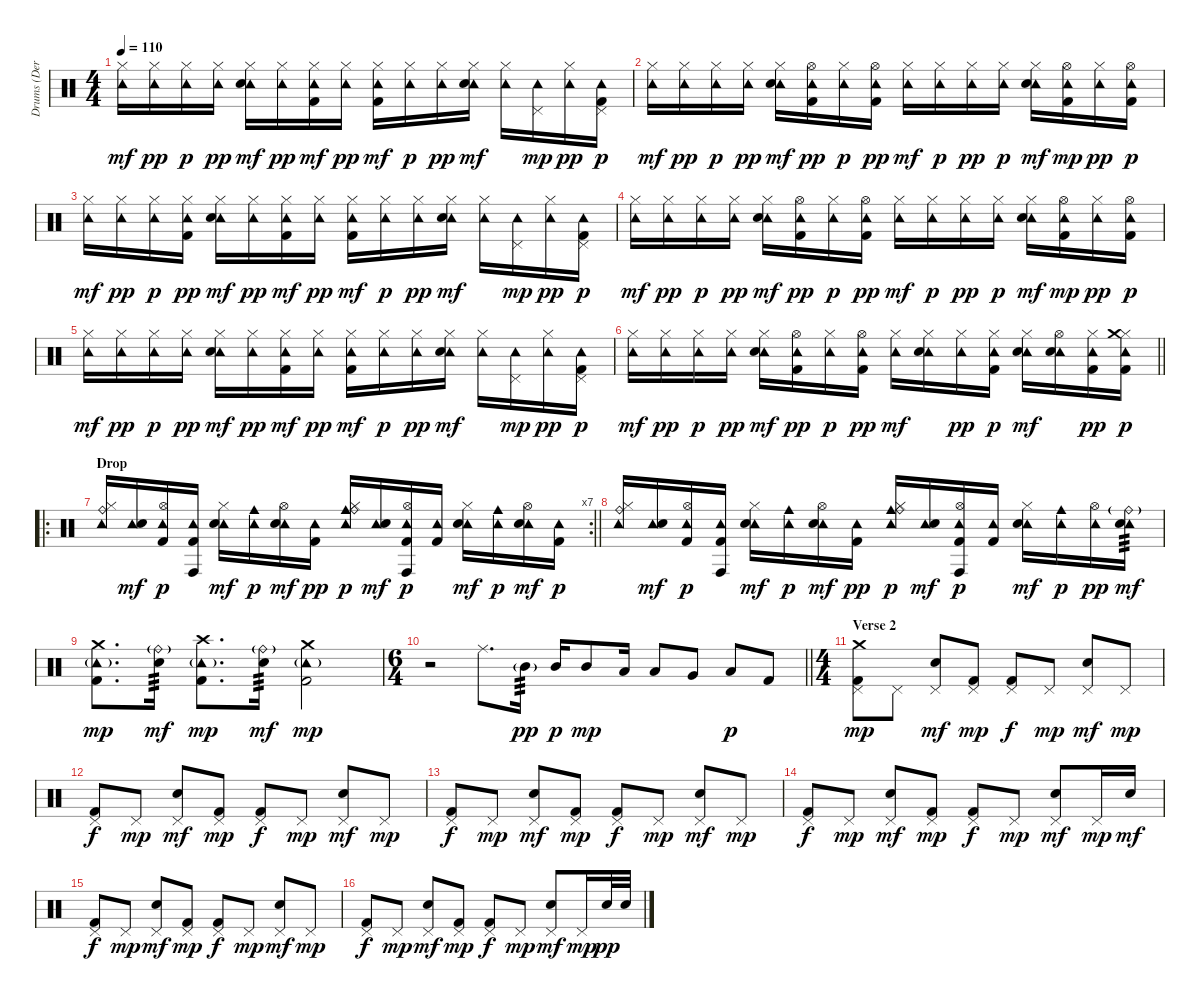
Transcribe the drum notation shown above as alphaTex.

\track ("Drums (Derrick McKenzie)" "Drums (Der") {instrument percussion}
\staff {score}
\articulation defaults
\ts (4 4)
\tempo 110
\clef neutral
\ks c
("Hi-Hat (closed)" "Tambourine (hit)").16{dy mf} ("Hi-Hat (closed)" "Tambourine (hit)").16{dy pp} ("Hi-Hat (closed)" "Tambourine (hit)").16{dy p} ("Hi-Hat (closed)" "Tambourine (hit)").16{dy pp} ("Hi-Hat (closed)" "Tambourine (hit)" "Electric Snare (hit)").16{dy mf} ("Hi-Hat (closed)" "Tambourine (hit)").16{dy pp} ("Hi-Hat (closed)" "Tambourine (hit)" "Kick (hit) 2").16{dy mf} ("Hi-Hat (closed)" "Tambourine (hit)").16{dy pp} ("Hi-Hat (closed)" "Tambourine (hit)" "Kick (hit) 2").16{dy mf} ("Hi-Hat (closed)" "Tambourine (hit)").16{dy p} ("Hi-Hat (closed)" "Tambourine (hit)").16{dy pp} ("Hi-Hat (closed)" "Tambourine (hit)" "Electric Snare (hit)").16{dy mf} ("Hi-Hat (closed)" "Tambourine (hit)").16 ("Pedal Hi-Hat (hit)" "Tambourine (hit)").16{dy mp} ("Hi-Hat (closed)" "Tambourine (hit)").16{dy pp} ("Pedal Hi-Hat (hit)" "Tambourine (hit)" "Kick (hit) 2").16{dy p} |
("Hi-Hat (closed)" "Tambourine (hit)").16{dy mf} ("Hi-Hat (closed)" "Tambourine (hit)").16{dy pp} ("Hi-Hat (closed)" "Tambourine (hit)").16{dy p} ("Hi-Hat (closed)" "Tambourine (hit)").16{dy pp} ("Hi-Hat (closed)" "Tambourine (hit)" "Electric Snare (hit)").16{dy mf} ("Hi-Hat (open)" "Tambourine (hit)" "Kick (hit) 2").16{dy pp} ("Hi-Hat (closed)" "Tambourine (hit)").16{dy p} ("Hi-Hat (open)" "Tambourine (hit)" "Kick (hit) 2").16{dy pp} ("Hi-Hat (closed)" "Tambourine (hit)").16{dy mf} ("Hi-Hat (closed)" "Tambourine (hit)").16{dy p} ("Hi-Hat (closed)" "Tambourine (hit)").16{dy pp} ("Hi-Hat (closed)" "Tambourine (hit)").16{dy p} ("Hi-Hat (closed)" "Tambourine (hit)" "Electric Snare (hit)").16{dy mf} ("Hi-Hat (open)" "Tambourine (hit)" "Kick (hit) 2").16{dy mp} ("Hi-Hat (closed)" "Tambourine (hit)").16{dy pp} ("Hi-Hat (open)" "Tambourine (hit)" "Kick (hit) 2").16{dy p} |
("Hi-Hat (closed)" "Tambourine (hit)").16{dy mf} ("Hi-Hat (closed)" "Tambourine (hit)").16{dy pp} ("Hi-Hat (closed)" "Tambourine (hit)").16{dy p} ("Hi-Hat (closed)" "Tambourine (hit)" "Kick (hit) 2").16{dy pp} ("Hi-Hat (closed)" "Tambourine (hit)" "Electric Snare (hit)").16{dy mf} ("Hi-Hat (closed)" "Tambourine (hit)").16{dy pp} ("Hi-Hat (closed)" "Tambourine (hit)" "Kick (hit) 2").16{dy mf} ("Hi-Hat (closed)" "Tambourine (hit)").16{dy pp} ("Hi-Hat (closed)" "Tambourine (hit)" "Kick (hit) 2").16{dy mf} ("Hi-Hat (closed)" "Tambourine (hit)").16{dy p} ("Hi-Hat (closed)" "Tambourine (hit)").16{dy pp} ("Hi-Hat (closed)" "Tambourine (hit)" "Electric Snare (hit)").16{dy mf} ("Hi-Hat (closed)" "Tambourine (hit)").16 ("Pedal Hi-Hat (hit)" "Tambourine (hit)").16{dy mp} ("Hi-Hat (closed)" "Tambourine (hit)").16{dy pp} ("Pedal Hi-Hat (hit)" "Tambourine (hit)" "Kick (hit) 2").16{dy p} |
("Hi-Hat (closed)" "Tambourine (hit)").16{dy mf} ("Hi-Hat (closed)" "Tambourine (hit)").16{dy pp} ("Hi-Hat (closed)" "Tambourine (hit)").16{dy p} ("Hi-Hat (closed)" "Tambourine (hit)").16{dy pp} ("Hi-Hat (closed)" "Tambourine (hit)" "Electric Snare (hit)").16{dy mf} ("Hi-Hat (open)" "Tambourine (hit)" "Kick (hit) 2").16{dy pp} ("Hi-Hat (closed)" "Tambourine (hit)").16{dy p} ("Hi-Hat (open)" "Tambourine (hit)" "Kick (hit) 2").16{dy pp} ("Hi-Hat (closed)" "Tambourine (hit)").16{dy mf} ("Hi-Hat (closed)" "Tambourine (hit)").16{dy p} ("Hi-Hat (closed)" "Tambourine (hit)").16{dy pp} ("Hi-Hat (closed)" "Tambourine (hit)").16{dy p} ("Hi-Hat (closed)" "Tambourine (hit)" "Electric Snare (hit)").16{dy mf} ("Hi-Hat (open)" "Tambourine (hit)" "Kick (hit) 2").16{dy mp} ("Hi-Hat (closed)" "Tambourine (hit)").16{dy pp} ("Hi-Hat (open)" "Tambourine (hit)" "Kick (hit) 2").16{dy p} |
("Hi-Hat (closed)" "Tambourine (hit)").16{dy mf} ("Hi-Hat (closed)" "Tambourine (hit)").16{dy pp} ("Hi-Hat (closed)" "Tambourine (hit)").16{dy p} ("Hi-Hat (closed)" "Tambourine (hit)").16{dy pp} ("Hi-Hat (closed)" "Tambourine (hit)" "Electric Snare (hit)").16{dy mf} ("Hi-Hat (closed)" "Tambourine (hit)").16{dy pp} ("Hi-Hat (closed)" "Tambourine (hit)" "Kick (hit) 2").16{dy mf} ("Hi-Hat (closed)" "Tambourine (hit)").16{dy pp} ("Hi-Hat (closed)" "Tambourine (hit)" "Kick (hit) 2").16{dy mf} ("Hi-Hat (closed)" "Tambourine (hit)").16{dy p} ("Hi-Hat (closed)" "Tambourine (hit)").16{dy pp} ("Hi-Hat (closed)" "Tambourine (hit)" "Electric Snare (hit)").16{dy mf} ("Hi-Hat (closed)" "Tambourine (hit)").16 ("Pedal Hi-Hat (hit)" "Tambourine (hit)").16{dy mp} ("Hi-Hat (closed)" "Tambourine (hit)").16{dy pp} ("Pedal Hi-Hat (hit)" "Tambourine (hit)" "Kick (hit) 2").16{dy p} |
\barLineRight lightlight
("Hi-Hat (closed)" "Tambourine (hit)").16{dy mf} ("Hi-Hat (closed)" "Tambourine (hit)").16{dy pp} ("Hi-Hat (closed)" "Tambourine (hit)").16{dy p} ("Hi-Hat (closed)" "Tambourine (hit)").16{dy pp} ("Hi-Hat (closed)" "Tambourine (hit)" "Electric Snare (hit)").16{dy mf} ("Hi-Hat (open)" "Tambourine (hit)" "Kick (hit) 2").16{dy pp} ("Hi-Hat (closed)" "Tambourine (hit)").16{dy p} ("Hi-Hat (open)" "Tambourine (hit)" "Kick (hit) 2").16{dy pp} ("Hi-Hat (closed)" "Tambourine (hit)").16{dy mf} ("Hi-Hat (closed)" "Tambourine (hit)" "Electric Snare (hit)").16 ("Hi-Hat (closed)" "Tambourine (hit)").16{dy pp} ("Hi-Hat (closed)" "Tambourine (hit)" "Kick (hit) 2").16{dy p} ("Hi-Hat (closed)" "Tambourine (hit)" "Electric Snare (hit)").16{dy mf} ("Hi-Hat (open)" "Tambourine (hit)" "Electric Snare (hit)").16 ("Hi-Hat (closed)" "Tambourine (hit)" "Kick (hit) 2").16{dy pp} ("Hi-Hat (closed)" "Tambourine (hit)" "Crash medium (hit)" "Kick (hit) 2").16{dy p} |
\ro
\rc 7
\section ("" "Drop")
\barLineRight lightlight
("Hi-Hat (closed)" "Tambourine (hit)" "Ride (bell)").16 ("Tambourine (hit)" "Electric Snare (hit)").16{dy mf} ("Hi-Hat (open)" "Tambourine (hit)" "Kick (hit) 2").16{dy p} ("Tambourine (hit)" "Conga high (hit)" "Kick (hit) 2").16 ("Hi-Hat (closed)" "Tambourine (hit)" "Electric Snare (hit)").16{dy mf} ("Tambourine (hit)" "Cowbell medium (hit)").16{dy p} ("Hi-Hat (open)" "Tambourine (hit)" "Electric Snare (hit)").16{dy mf} ("Tambourine (hit)" "Kick (hit) 2").16{dy pp} ("Hi-Hat (closed)" "Tambourine (hit)" "Cowbell medium (hit)" "Ride (bell)").16{dy p} ("Tambourine (hit)" "Electric Snare (hit)").16{dy mf} ("Hi-Hat (open)" "Tambourine (hit)" "Conga high (hit)" "Kick (hit) 2").16{dy p} ("Tambourine (hit)" "Kick (hit) 2").16 ("Hi-Hat (closed)" "Tambourine (hit)" "Electric Snare (hit)").16{dy mf} ("Tambourine (hit)" "Cowbell medium (hit)").16{dy p} ("Hi-Hat (open)" "Tambourine (hit)" "Electric Snare (hit)").16{dy mf} ("Tambourine (hit)" "Kick (hit) 2").16{dy p} |
("Hi-Hat (closed)" "Tambourine (hit)" "Ride (bell)").16 ("Tambourine (hit)" "Electric Snare (hit)").16{dy mf} ("Hi-Hat (open)" "Tambourine (hit)" "Kick (hit) 2").16{dy p} ("Tambourine (hit)" "Conga high (hit)" "Kick (hit) 2").16 ("Hi-Hat (closed)" "Tambourine (hit)" "Electric Snare (hit)").16{dy mf} ("Tambourine (hit)" "Cowbell medium (hit)").16{dy p} ("Hi-Hat (open)" "Tambourine (hit)" "Electric Snare (hit)").16{dy mf} ("Tambourine (hit)" "Kick (hit) 2").16{dy pp} ("Hi-Hat (closed)" "Tambourine (hit)" "Cowbell medium (hit)" "Ride (bell)").16{dy p} ("Tambourine (hit)" "Electric Snare (hit)").16{dy mf} ("Hi-Hat (open)" "Tambourine (hit)" "Conga high (hit)" "Kick (hit) 2").16{dy p} ("Tambourine (hit)" "Kick (hit) 2").16 ("Hi-Hat (closed)" "Tambourine (hit)" "Electric Snare (hit)").16{dy mf} ("Tambourine (hit)" "Cowbell medium (hit)").16{dy p} ("Hi-Hat (open)" "Tambourine (hit)").16{dy pp} ("Tambourine (hit)" "Ride (bell)"{g} "Electric Snare (hit)").16{tp 3 dy mf} |
("Crash medium (hit)" "Tambourine (hit)"{g} "Kick (hit) 2").8{d dy mp} ("Ride (bell)"{g} "Electric Snare (hit)").16{tp 3 dy mf} ("Crash high (hit)" "Tambourine (hit)"{g} "Kick (hit) 2").8{d dy mp} ("Ride (bell)"{g} "Electric Snare (hit)").16{tp 3 dy mf} ("Crash medium (hit)" "Tambourine (hit)"{g} "Kick (hit) 2").2{dy mp} |
\ts (6 4)
\barLineRight lightlight
r.2 "Ride (middle)".8{d} "Mid Tom (hit)"{g}.16{tp 3 dy pp} "Mid Tom (hit)".16{dy p} "Mid Tom (hit)".8{dy mp} "Low Tom (hit)".16 "Low Tom (hit)".8 "Very Low Tom (hit)".8 "Low Floor Tom (hit)".8{dy p} "Kick (hit) 2".8 |
\ts (4 4)
\section ("" "Verse 2")
("Pedal Hi-Hat (hit)" "Crash medium (hit)" "Kick (hit) 2").8{dy mp} "Pedal Hi-Hat (hit)".8 ("Pedal Hi-Hat (hit)" "Electric Snare (hit)").8{dy mf} ("Pedal Hi-Hat (hit)" "Kick (hit) 2").8{dy mp} ("Pedal Hi-Hat (hit)" "Kick (hit) 2").8{dy f} "Pedal Hi-Hat (hit)".8{dy mp} ("Pedal Hi-Hat (hit)" "Electric Snare (hit)").8{dy mf} "Pedal Hi-Hat (hit)".8{dy mp} |
("Pedal Hi-Hat (hit)" "Kick (hit) 2").8{dy f} "Pedal Hi-Hat (hit)".8{dy mp} ("Pedal Hi-Hat (hit)" "Electric Snare (hit)").8{dy mf} ("Pedal Hi-Hat (hit)" "Kick (hit) 2").8{dy mp} ("Pedal Hi-Hat (hit)" "Kick (hit) 2").8{dy f} "Pedal Hi-Hat (hit)".8{dy mp} ("Pedal Hi-Hat (hit)" "Electric Snare (hit)").8{dy mf} "Pedal Hi-Hat (hit)".8{dy mp} |
("Pedal Hi-Hat (hit)" "Kick (hit) 2").8{dy f} "Pedal Hi-Hat (hit)".8{dy mp} ("Pedal Hi-Hat (hit)" "Electric Snare (hit)").8{dy mf} ("Pedal Hi-Hat (hit)" "Kick (hit) 2").8{dy mp} ("Pedal Hi-Hat (hit)" "Kick (hit) 2").8{dy f} "Pedal Hi-Hat (hit)".8{dy mp} ("Pedal Hi-Hat (hit)" "Electric Snare (hit)").8{dy mf} "Pedal Hi-Hat (hit)".8{dy mp} |
("Pedal Hi-Hat (hit)" "Kick (hit) 2").8{dy f} "Pedal Hi-Hat (hit)".8{dy mp} ("Pedal Hi-Hat (hit)" "Electric Snare (hit)").8{dy mf} ("Pedal Hi-Hat (hit)" "Kick (hit) 2").8{dy mp} ("Pedal Hi-Hat (hit)" "Kick (hit) 2").8{dy f} "Pedal Hi-Hat (hit)".8{dy mp} ("Pedal Hi-Hat (hit)" "Electric Snare (hit)").8{dy mf} "Pedal Hi-Hat (hit)".16{dy mp} "Electric Snare (hit)".16{dy mf} |
("Pedal Hi-Hat (hit)" "Kick (hit) 2").8{dy f} "Pedal Hi-Hat (hit)".8{dy mp} ("Pedal Hi-Hat (hit)" "Electric Snare (hit)").8{dy mf} ("Pedal Hi-Hat (hit)" "Kick (hit) 2").8{dy mp} ("Pedal Hi-Hat (hit)" "Kick (hit) 2").8{dy f} "Pedal Hi-Hat (hit)".8{dy mp} ("Pedal Hi-Hat (hit)" "Electric Snare (hit)").8{dy mf} "Pedal Hi-Hat (hit)".8{dy mp} |
("Pedal Hi-Hat (hit)" "Kick (hit) 2").8{dy f} "Pedal Hi-Hat (hit)".8{dy mp} ("Pedal Hi-Hat (hit)" "Electric Snare (hit)").8{dy mf} ("Pedal Hi-Hat (hit)" "Kick (hit) 2").8{dy mp} ("Pedal Hi-Hat (hit)" "Kick (hit) 2").8{dy f} "Pedal Hi-Hat (hit)".8{dy mp} ("Pedal Hi-Hat (hit)" "Electric Snare (hit)").8{dy mf} "Pedal Hi-Hat (hit)".16{dy mp} "Electric Snare (hit)".32{dy pp} "Electric Snare (hit)".32
